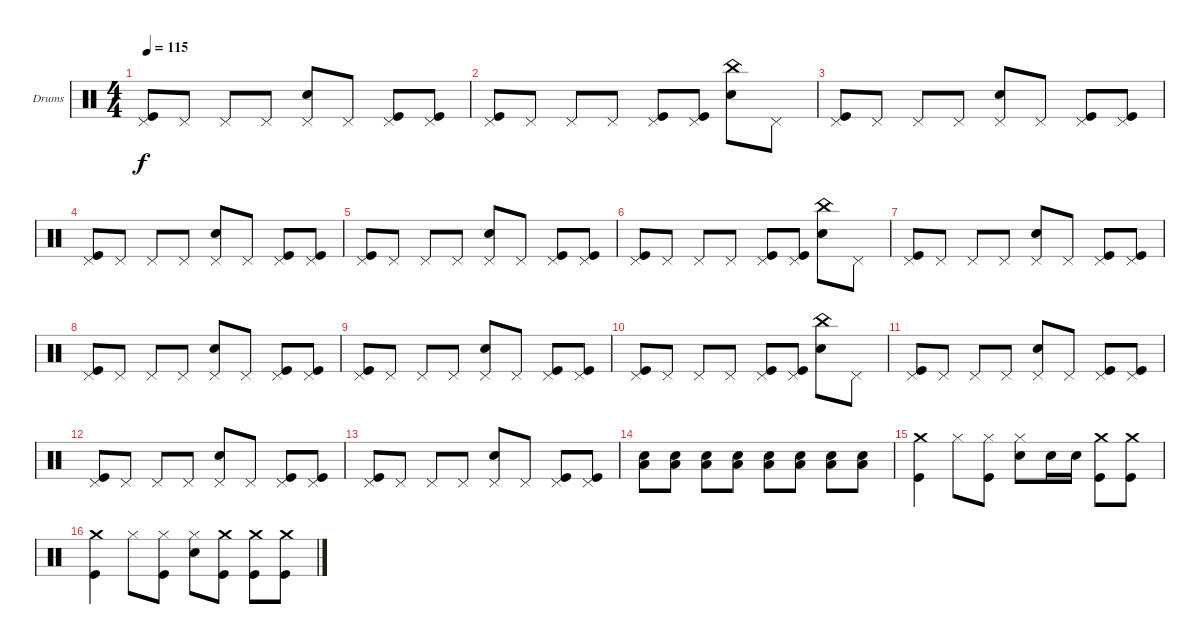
\defaultSystemsLayout 4
\bracketExtendMode groupsimilarinstruments
\firstSystemTrackNameOrientation horizontal
\otherSystemsTrackNameOrientation horizontal
\track ("Drumkit" "Drums") {instrument percussion}
\staff {score}
\articulation defaults
\ts (4 4)
\tempo 115
\clef neutral
\ks c
("Kick (hit)" "Pedal Hi-Hat (hit)").8{dy f} "Pedal Hi-Hat (hit)".8 "Pedal Hi-Hat (hit)".8 "Pedal Hi-Hat (hit)".8 ("Pedal Hi-Hat (hit)" "Snare (hit) 2").8 "Pedal Hi-Hat (hit)".8 ("Pedal Hi-Hat (hit)" "Kick (hit)").8 ("Pedal Hi-Hat (hit)" "Kick (hit)").8 |
("Kick (hit)" "Pedal Hi-Hat (hit)").8 "Pedal Hi-Hat (hit)".8 "Pedal Hi-Hat (hit)".8 "Pedal Hi-Hat (hit)".8 ("Pedal Hi-Hat (hit)" "Kick (hit)").8 ("Pedal Hi-Hat (hit)" "Kick (hit)").8 ("China (hit)" "Snare (hit) 2").8 "Pedal Hi-Hat (hit)".8 |
("Pedal Hi-Hat (hit)" "Kick (hit)").8 "Pedal Hi-Hat (hit)".8 "Pedal Hi-Hat (hit)".8 "Pedal Hi-Hat (hit)".8 ("Pedal Hi-Hat (hit)" "Snare (hit) 2").8 "Pedal Hi-Hat (hit)".8 ("Pedal Hi-Hat (hit)" "Kick (hit)").8 ("Pedal Hi-Hat (hit)" "Kick (hit)").8 |
("Kick (hit)" "Pedal Hi-Hat (hit)").8 "Pedal Hi-Hat (hit)".8 "Pedal Hi-Hat (hit)".8 "Pedal Hi-Hat (hit)".8 ("Pedal Hi-Hat (hit)" "Snare (hit) 2").8 "Pedal Hi-Hat (hit)".8 ("Pedal Hi-Hat (hit)" "Kick (hit)").8 ("Pedal Hi-Hat (hit)" "Kick (hit)").8 |
("Kick (hit)" "Pedal Hi-Hat (hit)").8 "Pedal Hi-Hat (hit)".8 "Pedal Hi-Hat (hit)".8 "Pedal Hi-Hat (hit)".8 ("Pedal Hi-Hat (hit)" "Snare (hit) 2").8 "Pedal Hi-Hat (hit)".8 ("Pedal Hi-Hat (hit)" "Kick (hit)").8 ("Pedal Hi-Hat (hit)" "Kick (hit)").8 |
("Kick (hit)" "Pedal Hi-Hat (hit)").8 "Pedal Hi-Hat (hit)".8 "Pedal Hi-Hat (hit)".8 "Pedal Hi-Hat (hit)".8 ("Pedal Hi-Hat (hit)" "Kick (hit)").8 ("Pedal Hi-Hat (hit)" "Kick (hit)").8 ("China (hit)" "Snare (hit) 2").8 "Pedal Hi-Hat (hit)".8 |
("Pedal Hi-Hat (hit)" "Kick (hit)").8 "Pedal Hi-Hat (hit)".8 "Pedal Hi-Hat (hit)".8 "Pedal Hi-Hat (hit)".8 ("Pedal Hi-Hat (hit)" "Snare (hit) 2").8 "Pedal Hi-Hat (hit)".8 ("Pedal Hi-Hat (hit)" "Kick (hit)").8 ("Pedal Hi-Hat (hit)" "Kick (hit)").8 |
("Kick (hit)" "Pedal Hi-Hat (hit)").8 "Pedal Hi-Hat (hit)".8 "Pedal Hi-Hat (hit)".8 "Pedal Hi-Hat (hit)".8 ("Pedal Hi-Hat (hit)" "Snare (hit) 2").8 "Pedal Hi-Hat (hit)".8 ("Pedal Hi-Hat (hit)" "Kick (hit)").8 ("Pedal Hi-Hat (hit)" "Kick (hit)").8 |
("Kick (hit)" "Pedal Hi-Hat (hit)").8 "Pedal Hi-Hat (hit)".8 "Pedal Hi-Hat (hit)".8 "Pedal Hi-Hat (hit)".8 ("Pedal Hi-Hat (hit)" "Snare (hit) 2").8 "Pedal Hi-Hat (hit)".8 ("Pedal Hi-Hat (hit)" "Kick (hit)").8 ("Pedal Hi-Hat (hit)" "Kick (hit)").8 |
("Kick (hit)" "Pedal Hi-Hat (hit)").8 "Pedal Hi-Hat (hit)".8 "Pedal Hi-Hat (hit)".8 "Pedal Hi-Hat (hit)".8 ("Pedal Hi-Hat (hit)" "Kick (hit)").8 ("Pedal Hi-Hat (hit)" "Kick (hit)").8 ("China (hit)" "Snare (hit) 2").8 "Pedal Hi-Hat (hit)".8 |
("Pedal Hi-Hat (hit)" "Kick (hit)").8 "Pedal Hi-Hat (hit)".8 "Pedal Hi-Hat (hit)".8 "Pedal Hi-Hat (hit)".8 ("Pedal Hi-Hat (hit)" "Snare (hit) 2").8 "Pedal Hi-Hat (hit)".8 ("Pedal Hi-Hat (hit)" "Kick (hit)").8 ("Pedal Hi-Hat (hit)" "Kick (hit)").8 |
("Kick (hit)" "Pedal Hi-Hat (hit)").8 "Pedal Hi-Hat (hit)".8 "Pedal Hi-Hat (hit)".8 "Pedal Hi-Hat (hit)".8 ("Pedal Hi-Hat (hit)" "Snare (hit) 2").8 "Pedal Hi-Hat (hit)".8 ("Pedal Hi-Hat (hit)" "Kick (hit)").8 ("Pedal Hi-Hat (hit)" "Kick (hit)").8 |
("Kick (hit)" "Pedal Hi-Hat (hit)").8 "Pedal Hi-Hat (hit)".8 "Pedal Hi-Hat (hit)".8 "Pedal Hi-Hat (hit)".8 ("Pedal Hi-Hat (hit)" "Snare (hit) 2").8 "Pedal Hi-Hat (hit)".8 ("Pedal Hi-Hat (hit)" "Kick (hit)").8 ("Pedal Hi-Hat (hit)" "Kick (hit)").8 |
("Low Tom (hit)" "Snare (hit) 2").8 ("Snare (hit) 2" "Low Tom (hit)").8 ("Low Tom (hit)" "Snare (hit) 2").8 ("Snare (hit) 2" "Low Tom (hit)").8 ("Low Tom (hit)" "Snare (hit) 2").8 ("Snare (hit) 2" "Low Tom (hit)").8 ("Low Tom (hit)" "Snare (hit) 2").8 ("Snare (hit) 2" "Low Tom (hit)").8 |
("Crash medium (hit)" "Kick (hit)").4 "Hi-Hat (closed)".8 ("Hi-Hat (closed)" "Kick (hit)").8 ("Hi-Hat (closed)" "Snare (hit) 2").8 "Snare (hit) 2".16 "Snare (hit) 2".16 ("Crash medium (hit)" "Kick (hit)").8 ("Crash medium (hit)" "Kick (hit)").8 |
("Crash medium (hit)" "Kick (hit)").4 "Hi-Hat (closed)".8 ("Hi-Hat (closed)" "Kick (hit)").8 ("Hi-Hat (closed)" "Snare (hit) 2").8 ("Crash medium (hit)" "Kick (hit)").8 ("Crash medium (hit)" "Kick (hit)").8 ("Crash medium (hit)" "Kick (hit)").8
